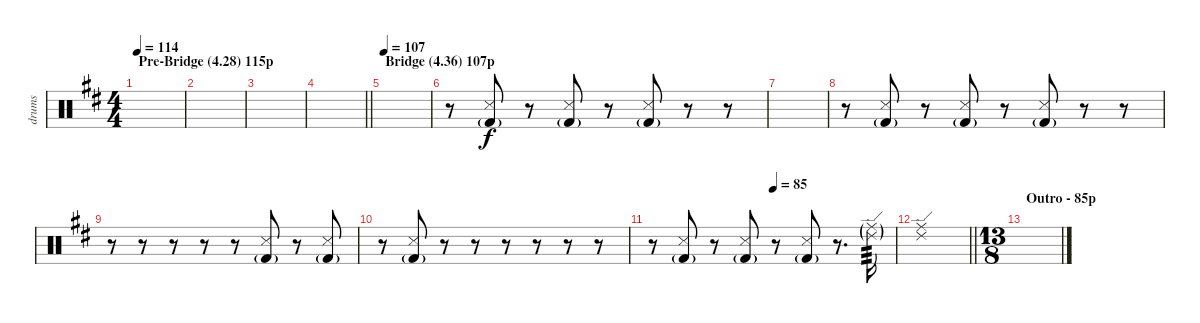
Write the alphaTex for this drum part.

\track ("drums" "drums") {instrument percussion}
\staff {score}
\articulation defaults
\ts (4 4)
\section ("" "Pre-Bridge (4.28) 115p")
\tempo 114
\clef neutral
\ks d
|
|
|
\barLineRight lightlight
|
\section ("" "Bridge (4.36) 107p")
\tempo 107
|
r.8 ("Snare (side stick) 3" "Kick (hit) 2"{g}).8 r.8 ("Snare (side stick) 3" "Kick (hit) 2"{g}).8 r.8 ("Snare (side stick) 3" "Kick (hit) 2"{g}).8 r.8 r.8 |
|
r.8 ("Snare (side stick) 3" "Kick (hit) 2"{g}).8 r.8 ("Snare (side stick) 3" "Kick (hit) 2"{g}).8 r.8 ("Snare (side stick) 3" "Kick (hit) 2"{g}).8 r.8 r.8 |
r.8 r.8 r.8 r.8 r.8 ("Snare (side stick) 3" "Kick (hit) 2"{g}).8 r.8 ("Snare (side stick) 3" "Kick (hit) 2"{g}).8 |
r.8 ("Snare (side stick) 3" "Kick (hit) 2"{g}).8 r.8 r.8 r.8 r.8 r.8 r.8 |
\tempo (85 0.5)
r.8 ("Snare (side stick) 3" "Kick (hit) 2"{g}).8 r.8 ("Snare (side stick) 3" "Kick (hit) 2"{g}).8 r.8 ("Snare (side stick) 3" "Kick (hit) 2"{g}).8 r.8{d} ("Ride (middle)"{g} "Ride (edge) 2"{g}).16{tp 3} |
\barLineRight lightlight
("Ride (middle)" "Ride (edge) 2").1{dy f} |
\ts (13 8)
\section ("" "Outro - 85p")
